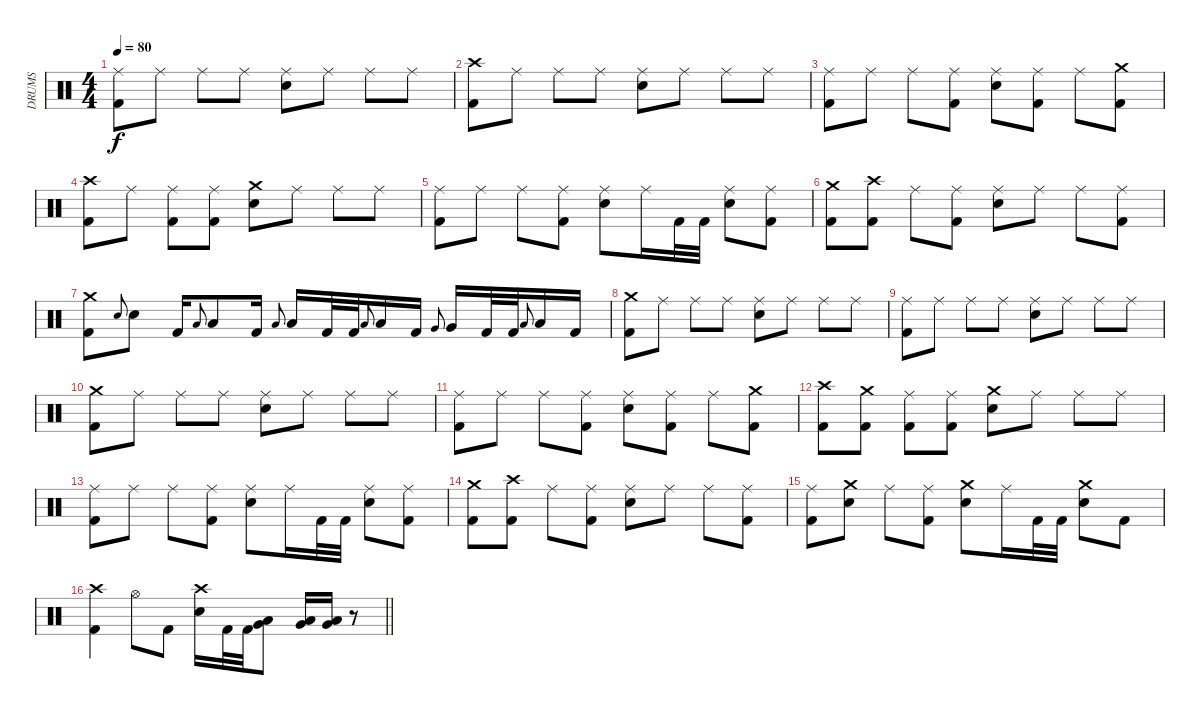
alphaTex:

\track ("DRUMS" "DRUMS") {instrument percussion}
\staff {score}
\articulation defaults
\ts (4 4)
\tempo 80
\clef neutral
\ks c
("Ride (middle)" "Kick (hit) 2").8{dy f} "Ride (middle)".8 "Ride (middle)".8 "Ride (middle)".8 ("Ride (middle)" "Snare (hit) 2").8 "Ride (middle)".8 "Ride (middle)".8 "Ride (middle)".8 |
("Crash high (hit)" "Kick (hit) 2").8 "Ride (middle)".8 "Ride (middle)".8 "Ride (middle)".8 ("Ride (middle)" "Snare (hit) 2").8 "Ride (middle)".8 "Ride (middle)".8 "Ride (middle)".8 |
("Ride (middle)" "Kick (hit) 2").8 "Ride (middle)".8 "Ride (middle)".8 ("Ride (middle)" "Kick (hit) 2").8 ("Ride (middle)" "Snare (hit) 2").8 ("Ride (middle)" "Kick (hit) 2").8 "Ride (middle)".8 ("Crash medium (hit)" "Kick (hit) 2").8 |
("Crash high (hit)" "Kick (hit) 2").8 "Ride (middle)".8 ("Ride (middle)" "Kick (hit) 2").8 ("Ride (middle)" "Kick (hit) 2").8 ("Crash medium (hit)" "Snare (hit) 2").8 "Ride (middle)".8 "Ride (middle)".8 "Ride (middle)".8 |
("Ride (middle)" "Kick (hit) 2").8 "Ride (middle)".8 "Ride (middle)".8 ("Ride (middle)" "Kick (hit) 2").8 ("Ride (middle)" "Snare (hit) 2").8 "Ride (middle)".16 "Kick (hit) 2".32 "Kick (hit) 2".32 ("Ride (middle)" "Snare (hit) 2").8 ("Ride (middle)" "Kick (hit) 2").8 |
("Crash medium (hit)" "Kick (hit) 2").8 ("Crash high (hit)" "Kick (hit) 2").8 "Ride (middle)".8 ("Ride (middle)" "Kick (hit) 2").8 ("Ride (middle)" "Snare (hit) 2").8 "Ride (middle)".8 "Ride (middle)".8 ("Ride (middle)" "Kick (hit) 2").8 |
("Crash medium (hit)" "Kick (hit) 2").8 "Snare (hit) 2".8{gr onbeat} "Snare (hit) 2".8 "Kick (hit) 2".16 "Low Tom (hit)".8{gr onbeat} "Low Tom (hit)".8 "Kick (hit) 2".16 "Low Tom (hit)".8{gr onbeat} "Low Tom (hit)".16 "Kick (hit) 2".32 "Kick (hit) 2".32 "Low Tom (hit)".8{gr onbeat} "Low Tom (hit)".16 "Kick (hit) 2".16 "Very Low Tom (hit)".8{gr onbeat} "Very Low Tom (hit)".16 "Kick (hit) 2".32 "Kick (hit) 2".32 "Low Floor Tom (hit)".8{gr onbeat} "Low Floor Tom (hit)".16 "Kick (hit) 2".16 |
("Crash medium (hit)" "Kick (hit) 2").8 "Ride (middle)".8 "Ride (middle)".8 "Ride (middle)".8 ("Ride (middle)" "Snare (hit) 2").8 "Ride (middle)".8 "Ride (middle)".8 "Ride (middle)".8 |
("Ride (middle)" "Kick (hit) 2").8 "Ride (middle)".8 "Ride (middle)".8 "Ride (middle)".8 ("Ride (middle)" "Snare (hit) 2").8 "Ride (middle)".8 "Ride (middle)".8 "Ride (middle)".8 |
("Crash medium (hit)" "Kick (hit) 2").8 "Ride (middle)".8 "Ride (middle)".8 "Ride (middle)".8 ("Ride (middle)" "Snare (hit) 2").8 "Ride (middle)".8 "Ride (middle)".8 "Ride (middle)".8 |
("Ride (middle)" "Kick (hit) 2").8 "Ride (middle)".8 "Ride (middle)".8 ("Ride (middle)" "Kick (hit) 2").8 ("Ride (middle)" "Snare (hit) 2").8 ("Ride (middle)" "Kick (hit) 2").8 "Ride (middle)".8 ("Crash medium (hit)" "Kick (hit) 2").8 |
("Crash high (hit)" "Kick (hit) 2").8 ("Crash medium (hit)" "Kick (hit) 2").8 ("Ride (middle)" "Kick (hit) 2").8 ("Ride (middle)" "Kick (hit) 2").8 ("Crash medium (hit)" "Snare (hit) 2").8 "Ride (middle)".8 "Ride (middle)".8 "Ride (middle)".8 |
("Ride (middle)" "Kick (hit) 2").8 "Ride (middle)".8 "Ride (middle)".8 ("Ride (middle)" "Kick (hit) 2").8 ("Ride (middle)" "Snare (hit) 2").8 "Ride (middle)".16 "Kick (hit) 2".32 "Kick (hit) 2".32 ("Ride (middle)" "Snare (hit) 2").8 ("Ride (middle)" "Kick (hit) 2").8 |
("Crash medium (hit)" "Kick (hit) 2").8 ("Crash high (hit)" "Kick (hit) 2").8 "Ride (middle)".8 ("Ride (middle)" "Kick (hit) 2").8 ("Ride (middle)" "Snare (hit) 2").8 "Ride (middle)".8 "Ride (middle)".8 ("Ride (middle)" "Kick (hit) 2").8 |
("Ride (middle)" "Kick (hit) 2").8 ("Crash medium (hit)" "Snare (hit) 2").8 "Ride (middle)".8 ("Ride (middle)" "Kick (hit) 2").8 ("Crash medium (hit)" "Snare (hit) 2").8 "Ride (middle)".16 "Kick (hit) 2".32 "Kick (hit) 2".32 ("Crash medium (hit)" "Snare (hit) 2").8 "Kick (hit) 2".8 |
\barLineRight lightlight
("Crash high (hit)" "Kick (hit) 2").4 "Hi-Hat (open)".8 "Kick (hit) 2".8 ("Crash high (hit)" "Snare (hit) 2").16 "Kick (hit) 2".32 "Kick (hit) 2".32 ("Very Low Tom (hit)" "Low Floor Tom (hit)").8 ("Very Low Tom (hit)" "Low Floor Tom (hit)").16 ("Very Low Tom (hit)" "Low Floor Tom (hit)").16 r.8
